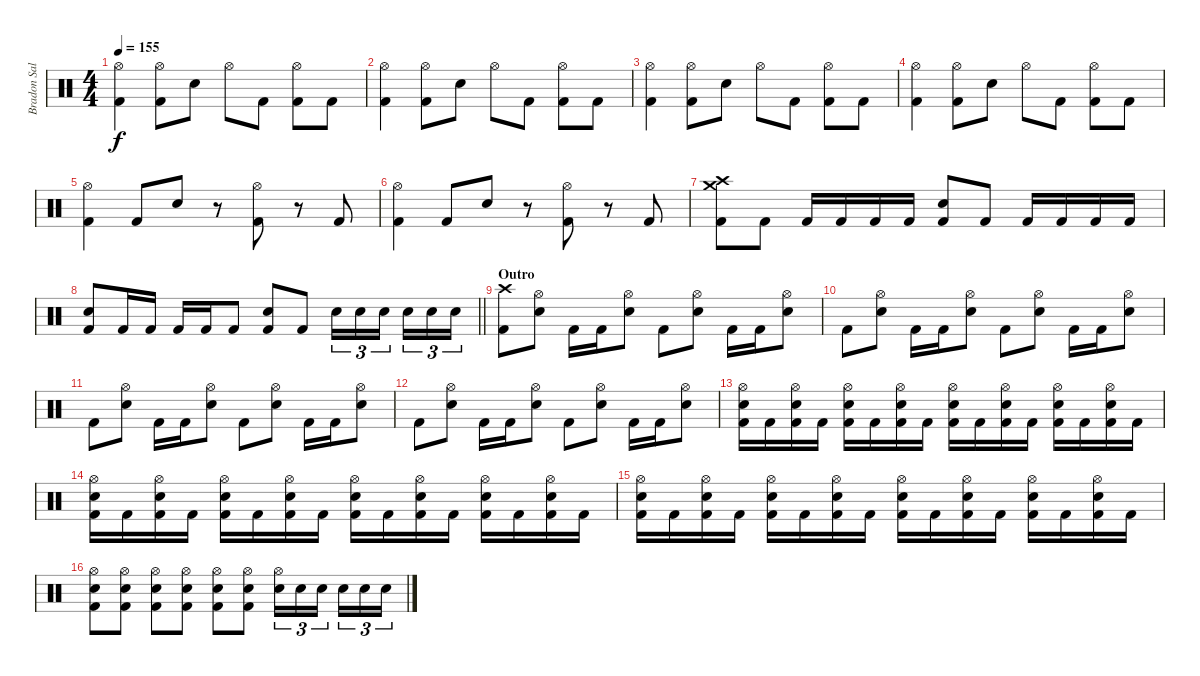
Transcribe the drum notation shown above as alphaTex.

\track ("Bradon Saller" "Bradon Sal") {instrument percussion}
\staff {score}
\articulation defaults
\ts (4 4)
\tempo 155
\clef neutral
\ks c
("Hi-Hat (open)" "Kick (hit) 2").4{dy f} ("Hi-Hat (open)" "Kick (hit) 2").8 "Electric Snare (hit)".8 "Hi-Hat (open)".8 "Kick (hit) 2".8 ("Hi-Hat (open)" "Kick (hit) 2").8 "Kick (hit) 2".8 |
("Hi-Hat (open)" "Kick (hit) 2").4 ("Hi-Hat (open)" "Kick (hit) 2").8 "Electric Snare (hit)".8 "Hi-Hat (open)".8 "Kick (hit) 2".8 ("Hi-Hat (open)" "Kick (hit) 2").8 "Kick (hit) 2".8 |
("Hi-Hat (open)" "Kick (hit) 2").4 ("Hi-Hat (open)" "Kick (hit) 2").8 "Electric Snare (hit)".8 "Hi-Hat (open)".8 "Kick (hit) 2".8 ("Hi-Hat (open)" "Kick (hit) 2").8 "Kick (hit) 2".8 |
("Hi-Hat (open)" "Kick (hit) 2").4 ("Hi-Hat (open)" "Kick (hit) 2").8 "Electric Snare (hit)".8 "Hi-Hat (open)".8 "Kick (hit) 2".8 ("Hi-Hat (open)" "Kick (hit) 2").8 "Kick (hit) 2".8 |
("Hi-Hat (open)" "Kick (hit) 2").4 "Kick (hit) 2".8 "Electric Snare (hit)".8 r.8 ("Hi-Hat (open)" "Kick (hit) 2").8 r.8 "Kick (hit) 2".8 |
("Hi-Hat (open)" "Kick (hit) 2").4 "Kick (hit) 2".8 "Electric Snare (hit)".8 r.8 ("Hi-Hat (open)" "Kick (hit) 2").8 r.8 "Kick (hit) 2".8 |
("Crash high (hit)" "Crash medium (hit)" "Kick (hit) 2").8 "Kick (hit) 2".8 "Kick (hit) 2".16 "Kick (hit) 2".16 "Kick (hit) 2".16 "Kick (hit) 2".16 ("Electric Snare (hit)" "Kick (hit) 2").8 "Kick (hit) 2".8 "Kick (hit) 2".16 "Kick (hit) 2".16 "Kick (hit) 2".16 "Kick (hit) 2".16 |
\barLineRight lightlight
("Electric Snare (hit)" "Kick (hit) 2").8 "Kick (hit) 2".16 "Kick (hit) 2".16 "Kick (hit) 2".16 "Kick (hit) 2".16 "Kick (hit) 2".8 ("Electric Snare (hit)" "Kick (hit) 2").8 "Kick (hit) 2".8 "Electric Snare (hit)".16{tu (3 2)} "Electric Snare (hit)".16{tu (3 2)} "Electric Snare (hit)".16{tu (3 2) beam splitsecondary} "Electric Snare (hit)".16{tu (3 2)} "Electric Snare (hit)".16{tu (3 2)} "Electric Snare (hit)".16{tu (3 2)} |
\section ("" "Outro")
("Crash high (hit)" "Kick (hit) 2").8 ("Hi-Hat (open)" "Electric Snare (hit)").8 "Kick (hit) 2".16 "Kick (hit) 2".16 ("Hi-Hat (open)" "Electric Snare (hit)").8 "Kick (hit) 2".8 ("Hi-Hat (open)" "Electric Snare (hit)").8 "Kick (hit) 2".16 "Kick (hit) 2".16 ("Hi-Hat (open)" "Electric Snare (hit)").8 |
"Kick (hit) 2".8 ("Hi-Hat (open)" "Electric Snare (hit)").8 "Kick (hit) 2".16 "Kick (hit) 2".16 ("Hi-Hat (open)" "Electric Snare (hit)").8 "Kick (hit) 2".8 ("Hi-Hat (open)" "Electric Snare (hit)").8 "Kick (hit) 2".16 "Kick (hit) 2".16 ("Hi-Hat (open)" "Electric Snare (hit)").8 |
"Kick (hit) 2".8 ("Hi-Hat (open)" "Electric Snare (hit)").8 "Kick (hit) 2".16 "Kick (hit) 2".16 ("Hi-Hat (open)" "Electric Snare (hit)").8 "Kick (hit) 2".8 ("Hi-Hat (open)" "Electric Snare (hit)").8 "Kick (hit) 2".16 "Kick (hit) 2".16 ("Hi-Hat (open)" "Electric Snare (hit)").8 |
"Kick (hit) 2".8 ("Hi-Hat (open)" "Electric Snare (hit)").8 "Kick (hit) 2".16 "Kick (hit) 2".16 ("Hi-Hat (open)" "Electric Snare (hit)").8 "Kick (hit) 2".8 ("Hi-Hat (open)" "Electric Snare (hit)").8 "Kick (hit) 2".16 "Kick (hit) 2".16 ("Hi-Hat (open)" "Electric Snare (hit)").8 |
("Hi-Hat (open)" "Electric Snare (hit)" "Kick (hit) 2").16 "Kick (hit) 2".16 ("Hi-Hat (open)" "Electric Snare (hit)" "Kick (hit) 2").16 "Kick (hit) 2".16 ("Hi-Hat (open)" "Electric Snare (hit)" "Kick (hit) 2").16 "Kick (hit) 2".16 ("Hi-Hat (open)" "Electric Snare (hit)" "Kick (hit) 2").16 "Kick (hit) 2".16 ("Hi-Hat (open)" "Electric Snare (hit)" "Kick (hit) 2").16 "Kick (hit) 2".16 ("Hi-Hat (open)" "Electric Snare (hit)" "Kick (hit) 2").16 "Kick (hit) 2".16 ("Hi-Hat (open)" "Electric Snare (hit)" "Kick (hit) 2").16 "Kick (hit) 2".16 ("Hi-Hat (open)" "Electric Snare (hit)" "Kick (hit) 2").16 "Kick (hit) 2".16 |
("Hi-Hat (open)" "Electric Snare (hit)" "Kick (hit) 2").16 "Kick (hit) 2".16 ("Hi-Hat (open)" "Electric Snare (hit)" "Kick (hit) 2").16 "Kick (hit) 2".16 ("Hi-Hat (open)" "Electric Snare (hit)" "Kick (hit) 2").16 "Kick (hit) 2".16 ("Hi-Hat (open)" "Electric Snare (hit)" "Kick (hit) 2").16 "Kick (hit) 2".16 ("Hi-Hat (open)" "Electric Snare (hit)" "Kick (hit) 2").16 "Kick (hit) 2".16 ("Hi-Hat (open)" "Electric Snare (hit)" "Kick (hit) 2").16 "Kick (hit) 2".16 ("Hi-Hat (open)" "Electric Snare (hit)" "Kick (hit) 2").16 "Kick (hit) 2".16 ("Hi-Hat (open)" "Electric Snare (hit)" "Kick (hit) 2").16 "Kick (hit) 2".16 |
("Hi-Hat (open)" "Electric Snare (hit)" "Kick (hit) 2").16 "Kick (hit) 2".16 ("Hi-Hat (open)" "Electric Snare (hit)" "Kick (hit) 2").16 "Kick (hit) 2".16 ("Hi-Hat (open)" "Electric Snare (hit)" "Kick (hit) 2").16 "Kick (hit) 2".16 ("Hi-Hat (open)" "Electric Snare (hit)" "Kick (hit) 2").16 "Kick (hit) 2".16 ("Hi-Hat (open)" "Electric Snare (hit)" "Kick (hit) 2").16 "Kick (hit) 2".16 ("Hi-Hat (open)" "Electric Snare (hit)" "Kick (hit) 2").16 "Kick (hit) 2".16 ("Hi-Hat (open)" "Electric Snare (hit)" "Kick (hit) 2").16 "Kick (hit) 2".16 ("Hi-Hat (open)" "Electric Snare (hit)" "Kick (hit) 2").16 "Kick (hit) 2".16 |
("Hi-Hat (open)" "Electric Snare (hit)" "Kick (hit) 2").8 ("Hi-Hat (open)" "Electric Snare (hit)" "Kick (hit) 2").8 ("Hi-Hat (open)" "Electric Snare (hit)" "Kick (hit) 2").8 ("Hi-Hat (open)" "Electric Snare (hit)" "Kick (hit) 2").8 ("Hi-Hat (open)" "Electric Snare (hit)" "Kick (hit) 2").8 ("Hi-Hat (open)" "Electric Snare (hit)" "Kick (hit) 2").8 ("Hi-Hat (open)" "Electric Snare (hit)").16{tu (3 2)} "Electric Snare (hit)".16{tu (3 2)} "Electric Snare (hit)".16{tu (3 2) beam splitsecondary} "Electric Snare (hit)".16{tu (3 2)} "Electric Snare (hit)".16{tu (3 2)} "Electric Snare (hit)".16{tu (3 2)}
